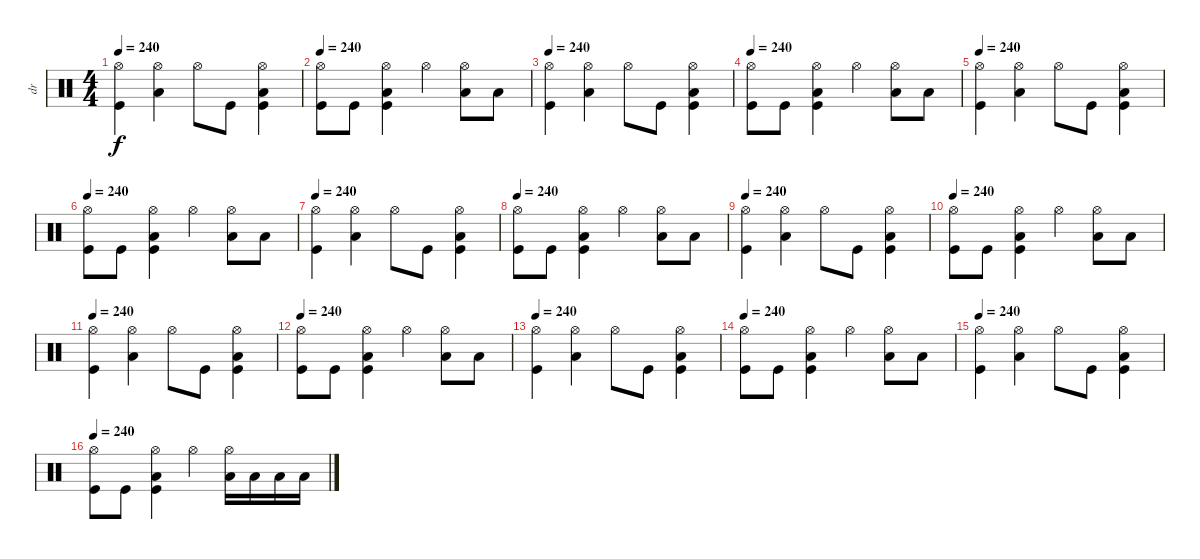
\track ("dr" "dr") {instrument percussion}
\staff {score}
\articulation defaults
\ts (4 4)
\tempo 240
\clef neutral
\ks c
("Hi-Hat (open)" "Kick (hit)").4{dy f} ("Hi-Hat (open)" "Low Floor Tom (hit)").4 "Hi-Hat (open)".8 "Kick (hit)".8 ("Hi-Hat (open)" "Low Floor Tom (hit)" "Kick (hit)").4 |
\tempo 240
("Hi-Hat (open)" "Kick (hit)").8 "Kick (hit)".8 ("Hi-Hat (open)" "Low Floor Tom (hit)" "Kick (hit)").4 "Hi-Hat (open)".4 ("Hi-Hat (open)" "Low Floor Tom (hit)").8 "Low Floor Tom (hit)".8 |
\tempo 240
("Hi-Hat (open)" "Kick (hit)").4 ("Hi-Hat (open)" "Low Floor Tom (hit)").4 "Hi-Hat (open)".8 "Kick (hit)".8 ("Hi-Hat (open)" "Low Floor Tom (hit)" "Kick (hit)").4 |
\tempo 240
("Hi-Hat (open)" "Kick (hit)").8 "Kick (hit)".8 ("Hi-Hat (open)" "Low Floor Tom (hit)" "Kick (hit)").4 "Hi-Hat (open)".4 ("Hi-Hat (open)" "Low Floor Tom (hit)").8 "Low Floor Tom (hit)".8 |
\tempo 240
("Hi-Hat (open)" "Kick (hit)").4 ("Hi-Hat (open)" "Low Floor Tom (hit)").4 "Hi-Hat (open)".8 "Kick (hit)".8 ("Hi-Hat (open)" "Low Floor Tom (hit)" "Kick (hit)").4 |
\tempo 240
("Hi-Hat (open)" "Kick (hit)").8 "Kick (hit)".8 ("Hi-Hat (open)" "Low Floor Tom (hit)" "Kick (hit)").4 "Hi-Hat (open)".4 ("Hi-Hat (open)" "Low Floor Tom (hit)").8 "Low Floor Tom (hit)".8 |
\tempo 240
("Hi-Hat (open)" "Kick (hit)").4 ("Hi-Hat (open)" "Low Floor Tom (hit)").4 "Hi-Hat (open)".8 "Kick (hit)".8 ("Hi-Hat (open)" "Low Floor Tom (hit)" "Kick (hit)").4 |
\tempo 240
("Hi-Hat (open)" "Kick (hit)").8 "Kick (hit)".8 ("Hi-Hat (open)" "Low Floor Tom (hit)" "Kick (hit)").4 "Hi-Hat (open)".4 ("Hi-Hat (open)" "Low Floor Tom (hit)").8 "Low Floor Tom (hit)".8 |
\tempo 240
("Hi-Hat (open)" "Kick (hit)").4 ("Hi-Hat (open)" "Low Floor Tom (hit)").4 "Hi-Hat (open)".8 "Kick (hit)".8 ("Hi-Hat (open)" "Low Floor Tom (hit)" "Kick (hit)").4 |
\tempo 240
("Hi-Hat (open)" "Kick (hit)").8 "Kick (hit)".8 ("Hi-Hat (open)" "Low Floor Tom (hit)" "Kick (hit)").4 "Hi-Hat (open)".4 ("Hi-Hat (open)" "Low Floor Tom (hit)").8 "Low Floor Tom (hit)".8 |
\tempo 240
("Hi-Hat (open)" "Kick (hit)").4 ("Hi-Hat (open)" "Low Floor Tom (hit)").4 "Hi-Hat (open)".8 "Kick (hit)".8 ("Hi-Hat (open)" "Low Floor Tom (hit)" "Kick (hit)").4 |
\tempo 240
("Hi-Hat (open)" "Kick (hit)").8 "Kick (hit)".8 ("Hi-Hat (open)" "Low Floor Tom (hit)" "Kick (hit)").4 "Hi-Hat (open)".4 ("Hi-Hat (open)" "Low Floor Tom (hit)").8 "Low Floor Tom (hit)".8 |
\tempo 240
("Hi-Hat (open)" "Kick (hit)").4 ("Hi-Hat (open)" "Low Floor Tom (hit)").4 "Hi-Hat (open)".8 "Kick (hit)".8 ("Hi-Hat (open)" "Low Floor Tom (hit)" "Kick (hit)").4 |
\tempo 240
("Hi-Hat (open)" "Kick (hit)").8 "Kick (hit)".8 ("Hi-Hat (open)" "Low Floor Tom (hit)" "Kick (hit)").4 "Hi-Hat (open)".4 ("Hi-Hat (open)" "Low Floor Tom (hit)").8 "Low Floor Tom (hit)".8 |
\tempo 240
("Hi-Hat (open)" "Kick (hit)").4 ("Hi-Hat (open)" "Low Floor Tom (hit)").4 "Hi-Hat (open)".8 "Kick (hit)".8 ("Hi-Hat (open)" "Low Floor Tom (hit)" "Kick (hit)").4 |
\tempo 240
("Hi-Hat (open)" "Kick (hit)").8 "Kick (hit)".8 ("Hi-Hat (open)" "Low Floor Tom (hit)" "Kick (hit)").4 "Hi-Hat (open)".4 ("Hi-Hat (open)" "Low Floor Tom (hit)").16 "Low Floor Tom (hit)".16 "Low Floor Tom (hit)".16 "Low Floor Tom (hit)".16
